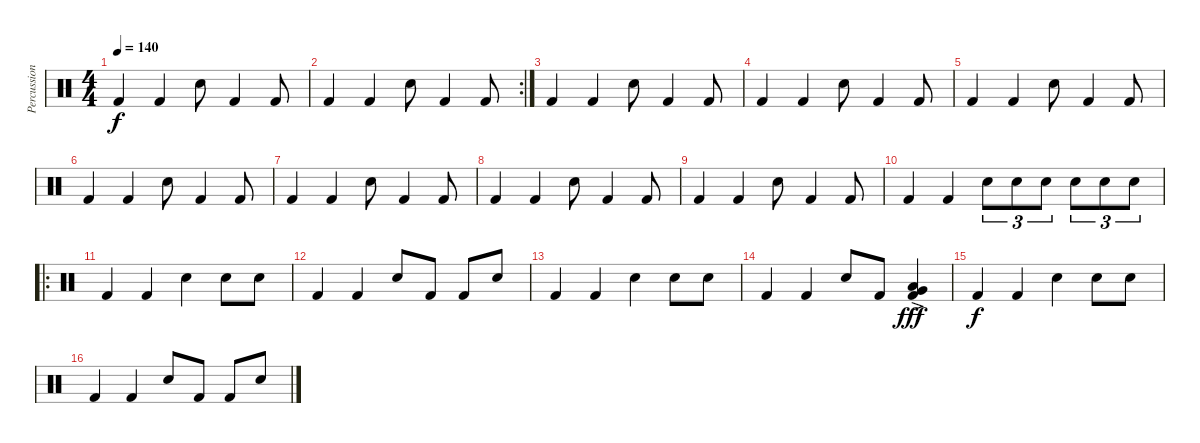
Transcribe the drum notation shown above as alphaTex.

\track ("Percussions" "Percussion") {instrument percussion}
\staff {score}
\articulation defaults
\ts (4 4)
\tempo 140
\clef neutral
\ks c "Kick (hit) 2".4{dy f} "Kick (hit) 2".4 "Snare (hit) 2".8 "Kick (hit) 2".4 "Kick (hit) 2".8
|
\rc 2 "Kick (hit) 2".4 "Kick (hit) 2".4 "Snare (hit) 2".8 "Kick (hit) 2".4 "Kick (hit) 2".8
|
"Kick (hit) 2".4 "Kick (hit) 2".4 "Snare (hit) 2".8 "Kick (hit) 2".4 "Kick (hit) 2".8 |
"Kick (hit) 2".4 "Kick (hit) 2".4 "Snare (hit) 2".8 "Kick (hit) 2".4 "Kick (hit) 2".8 |
"Kick (hit) 2".4 "Kick (hit) 2".4 "Snare (hit) 2".8 "Kick (hit) 2".4 "Kick (hit) 2".8 |
"Kick (hit) 2".4 "Kick (hit) 2".4 "Snare (hit) 2".8 "Kick (hit) 2".4 "Kick (hit) 2".8 |
"Kick (hit) 2".4 "Kick (hit) 2".4 "Snare (hit) 2".8 "Kick (hit) 2".4 "Kick (hit) 2".8 |
"Kick (hit) 2".4 "Kick (hit) 2".4 "Snare (hit) 2".8 "Kick (hit) 2".4 "Kick (hit) 2".8 |
"Kick (hit) 2".4 "Kick (hit) 2".4 "Snare (hit) 2".8 "Kick (hit) 2".4 "Kick (hit) 2".8 |
"Kick (hit) 2".4 "Kick (hit) 2".4 "Snare (hit) 2".8{tu (3 2)} "Snare (hit) 2".8{tu (3 2)} "Snare (hit) 2".8{tu (3 2)} "Snare (hit) 2".8{tu (3 2)} "Snare (hit) 2".8{tu (3 2)} "Snare (hit) 2".8{tu (3 2)} |
\ro "Kick (hit) 2".4 "Kick (hit) 2".4 "Snare (hit) 2".4 "Snare (hit) 2".8 "Snare (hit) 2".8
|
"Kick (hit) 2".4 "Kick (hit) 2".4 "Snare (hit) 2".8 "Kick (hit) 2".8 "Kick (hit) 2".8 "Snare (hit) 2".8 |
"Kick (hit) 2".4 "Kick (hit) 2".4 "Snare (hit) 2".4 "Snare (hit) 2".8 "Snare (hit) 2".8 |
"Kick (hit) 2".4 "Kick (hit) 2".4 "Snare (hit) 2".8 "Kick (hit) 2".8 ("Very Low Tom (hit)"{ac} "Low Floor Tom (hit)"{ac} "Kick (hit) 2").4{dy fff} |
"Kick (hit) 2".4{dy f} "Kick (hit) 2".4 "Snare (hit) 2".4 "Snare (hit) 2".8 "Snare (hit) 2".8 |
"Kick (hit) 2".4 "Kick (hit) 2".4 "Snare (hit) 2".8 "Kick (hit) 2".8 "Kick (hit) 2".8 "Snare (hit) 2".8
